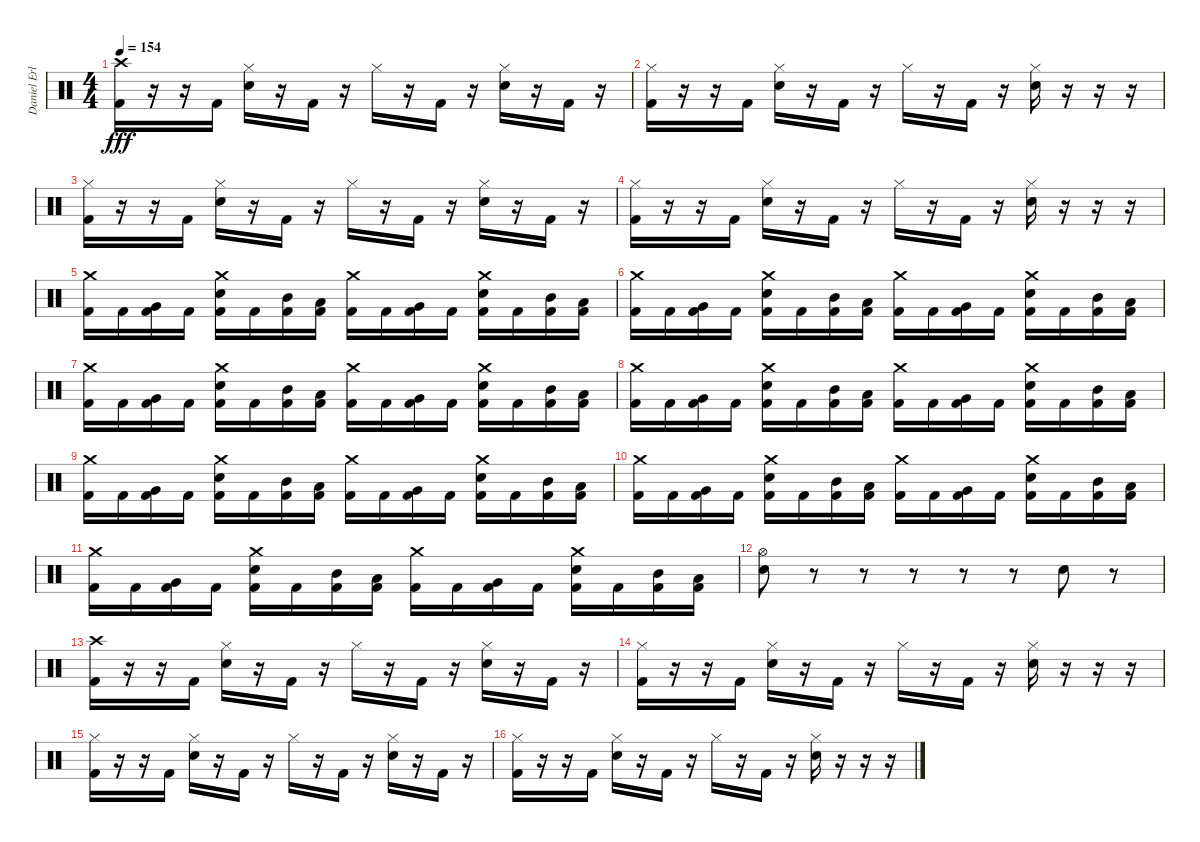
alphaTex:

\track ("Daniel Erlandsson" "Daniel Erl") {instrument percussion}
\staff {score}
\articulation defaults
\ts (4 4)
\tempo 154
\clef neutral
\ks c
("Crash high (hit)" "Kick (hit) 2").16{dy fff} r.16 r.16 "Kick (hit) 2".16 ("Hi-Hat (closed)" "Electric Snare (hit)").16 r.16 "Kick (hit) 2".16 r.16 "Hi-Hat (closed)".16 r.16 "Kick (hit) 2".16 r.16 ("Hi-Hat (closed)" "Electric Snare (hit)").16 r.16 "Kick (hit) 2".16 r.16 |
("Hi-Hat (closed)" "Kick (hit) 2").16 r.16 r.16 "Kick (hit) 2".16 ("Hi-Hat (closed)" "Electric Snare (hit)").16 r.16 "Kick (hit) 2".16 r.16 "Hi-Hat (closed)".16 r.16 "Kick (hit) 2".16 r.16 ("Hi-Hat (closed)" "Electric Snare (hit)").16 r.16 r.16 r.16 |
("Hi-Hat (closed)" "Kick (hit) 2").16 r.16 r.16 "Kick (hit) 2".16 ("Hi-Hat (closed)" "Electric Snare (hit)").16 r.16 "Kick (hit) 2".16 r.16 "Hi-Hat (closed)".16 r.16 "Kick (hit) 2".16 r.16 ("Hi-Hat (closed)" "Electric Snare (hit)").16 r.16 "Kick (hit) 2".16 r.16 |
("Hi-Hat (closed)" "Kick (hit) 2").16 r.16 r.16 "Kick (hit) 2".16 ("Hi-Hat (closed)" "Electric Snare (hit)").16 r.16 "Kick (hit) 2".16 r.16 "Hi-Hat (closed)".16 r.16 "Kick (hit) 2".16 r.16 ("Hi-Hat (closed)" "Electric Snare (hit)").16 r.16 r.16 r.16 |
("Crash medium (hit)" "Kick (hit) 2").16 "Kick (hit) 2".16 ("Very Low Tom (hit)" "Kick (hit) 2").16 "Kick (hit) 2".16 ("Crash medium (hit)" "Electric Snare (hit)" "Kick (hit) 2").16 "Kick (hit) 2".16 ("Mid Tom (hit)" "Kick (hit) 2").16 ("Low Tom (hit)" "Kick (hit) 2").16 ("Crash medium (hit)" "Kick (hit) 2").16 "Kick (hit) 2".16 ("Very Low Tom (hit)" "Kick (hit) 2").16 "Kick (hit) 2".16 ("Crash medium (hit)" "Electric Snare (hit)" "Kick (hit) 2").16 "Kick (hit) 2".16 ("Mid Tom (hit)" "Kick (hit) 2").16 ("Low Tom (hit)" "Kick (hit) 2").16 |
("Crash medium (hit)" "Kick (hit) 2").16 "Kick (hit) 2".16 ("Very Low Tom (hit)" "Kick (hit) 2").16 "Kick (hit) 2".16 ("Crash medium (hit)" "Electric Snare (hit)" "Kick (hit) 2").16 "Kick (hit) 2".16 ("Mid Tom (hit)" "Kick (hit) 2").16 ("Low Tom (hit)" "Kick (hit) 2").16 ("Crash medium (hit)" "Kick (hit) 2").16 "Kick (hit) 2".16 ("Very Low Tom (hit)" "Kick (hit) 2").16 "Kick (hit) 2".16 ("Crash medium (hit)" "Electric Snare (hit)" "Kick (hit) 2").16 "Kick (hit) 2".16 ("Mid Tom (hit)" "Kick (hit) 2").16 ("Low Tom (hit)" "Kick (hit) 2").16 |
("Crash medium (hit)" "Kick (hit) 2").16 "Kick (hit) 2".16 ("Very Low Tom (hit)" "Kick (hit) 2").16 "Kick (hit) 2".16 ("Crash medium (hit)" "Electric Snare (hit)" "Kick (hit) 2").16 "Kick (hit) 2".16 ("Mid Tom (hit)" "Kick (hit) 2").16 ("Low Tom (hit)" "Kick (hit) 2").16 ("Crash medium (hit)" "Kick (hit) 2").16 "Kick (hit) 2".16 ("Very Low Tom (hit)" "Kick (hit) 2").16 "Kick (hit) 2".16 ("Crash medium (hit)" "Electric Snare (hit)" "Kick (hit) 2").16 "Kick (hit) 2".16 ("Mid Tom (hit)" "Kick (hit) 2").16 ("Low Tom (hit)" "Kick (hit) 2").16 |
("Crash medium (hit)" "Kick (hit) 2").16 "Kick (hit) 2".16 ("Very Low Tom (hit)" "Kick (hit) 2").16 "Kick (hit) 2".16 ("Crash medium (hit)" "Electric Snare (hit)" "Kick (hit) 2").16 "Kick (hit) 2".16 ("Mid Tom (hit)" "Kick (hit) 2").16 ("Low Tom (hit)" "Kick (hit) 2").16 ("Crash medium (hit)" "Kick (hit) 2").16 "Kick (hit) 2".16 ("Very Low Tom (hit)" "Kick (hit) 2").16 "Kick (hit) 2".16 ("Crash medium (hit)" "Electric Snare (hit)" "Kick (hit) 2").16 "Kick (hit) 2".16 ("Mid Tom (hit)" "Kick (hit) 2").16 ("Low Tom (hit)" "Kick (hit) 2").16 |
("Crash medium (hit)" "Kick (hit) 2").16 "Kick (hit) 2".16 ("Very Low Tom (hit)" "Kick (hit) 2").16 "Kick (hit) 2".16 ("Crash medium (hit)" "Electric Snare (hit)" "Kick (hit) 2").16 "Kick (hit) 2".16 ("Mid Tom (hit)" "Kick (hit) 2").16 ("Low Tom (hit)" "Kick (hit) 2").16 ("Crash medium (hit)" "Kick (hit) 2").16 "Kick (hit) 2".16 ("Very Low Tom (hit)" "Kick (hit) 2").16 "Kick (hit) 2".16 ("Crash medium (hit)" "Electric Snare (hit)" "Kick (hit) 2").16 "Kick (hit) 2".16 ("Mid Tom (hit)" "Kick (hit) 2").16 ("Low Tom (hit)" "Kick (hit) 2").16 |
("Crash medium (hit)" "Kick (hit) 2").16 "Kick (hit) 2".16 ("Very Low Tom (hit)" "Kick (hit) 2").16 "Kick (hit) 2".16 ("Crash medium (hit)" "Electric Snare (hit)" "Kick (hit) 2").16 "Kick (hit) 2".16 ("Mid Tom (hit)" "Kick (hit) 2").16 ("Low Tom (hit)" "Kick (hit) 2").16 ("Crash medium (hit)" "Kick (hit) 2").16 "Kick (hit) 2".16 ("Very Low Tom (hit)" "Kick (hit) 2").16 "Kick (hit) 2".16 ("Crash medium (hit)" "Electric Snare (hit)" "Kick (hit) 2").16 "Kick (hit) 2".16 ("Mid Tom (hit)" "Kick (hit) 2").16 ("Low Tom (hit)" "Kick (hit) 2").16 |
("Crash medium (hit)" "Kick (hit) 2").16 "Kick (hit) 2".16 ("Very Low Tom (hit)" "Kick (hit) 2").16 "Kick (hit) 2".16 ("Crash medium (hit)" "Electric Snare (hit)" "Kick (hit) 2").16 "Kick (hit) 2".16 ("Mid Tom (hit)" "Kick (hit) 2").16 ("Low Tom (hit)" "Kick (hit) 2").16 ("Crash medium (hit)" "Kick (hit) 2").16 "Kick (hit) 2".16 ("Very Low Tom (hit)" "Kick (hit) 2").16 "Kick (hit) 2".16 ("Crash medium (hit)" "Electric Snare (hit)" "Kick (hit) 2").16 "Kick (hit) 2".16 ("Mid Tom (hit)" "Kick (hit) 2").16 ("Low Tom (hit)" "Kick (hit) 2").16 |
("Hi-Hat (open)" "Electric Snare (hit)").8 r.8 r.8 r.8 r.8 r.8 "Electric Snare (hit)".8 r.8 |
("Crash high (hit)" "Kick (hit) 2").16 r.16 r.16 "Kick (hit) 2".16 ("Hi-Hat (closed)" "Electric Snare (hit)").16 r.16 "Kick (hit) 2".16 r.16 "Hi-Hat (closed)".16 r.16 "Kick (hit) 2".16 r.16 ("Hi-Hat (closed)" "Electric Snare (hit)").16 r.16 "Kick (hit) 2".16 r.16 |
("Hi-Hat (closed)" "Kick (hit) 2").16 r.16 r.16 "Kick (hit) 2".16 ("Hi-Hat (closed)" "Electric Snare (hit)").16 r.16 "Kick (hit) 2".16 r.16 "Hi-Hat (closed)".16 r.16 "Kick (hit) 2".16 r.16 ("Hi-Hat (closed)" "Electric Snare (hit)").16 r.16 r.16 r.16 |
("Hi-Hat (closed)" "Kick (hit) 2").16 r.16 r.16 "Kick (hit) 2".16 ("Hi-Hat (closed)" "Electric Snare (hit)").16 r.16 "Kick (hit) 2".16 r.16 "Hi-Hat (closed)".16 r.16 "Kick (hit) 2".16 r.16 ("Hi-Hat (closed)" "Electric Snare (hit)").16 r.16 "Kick (hit) 2".16 r.16 |
("Hi-Hat (closed)" "Kick (hit) 2").16 r.16 r.16 "Kick (hit) 2".16 ("Hi-Hat (closed)" "Electric Snare (hit)").16 r.16 "Kick (hit) 2".16 r.16 "Hi-Hat (closed)".16 r.16 "Kick (hit) 2".16 r.16 ("Hi-Hat (closed)" "Electric Snare (hit)").16 r.16 r.16 r.16
